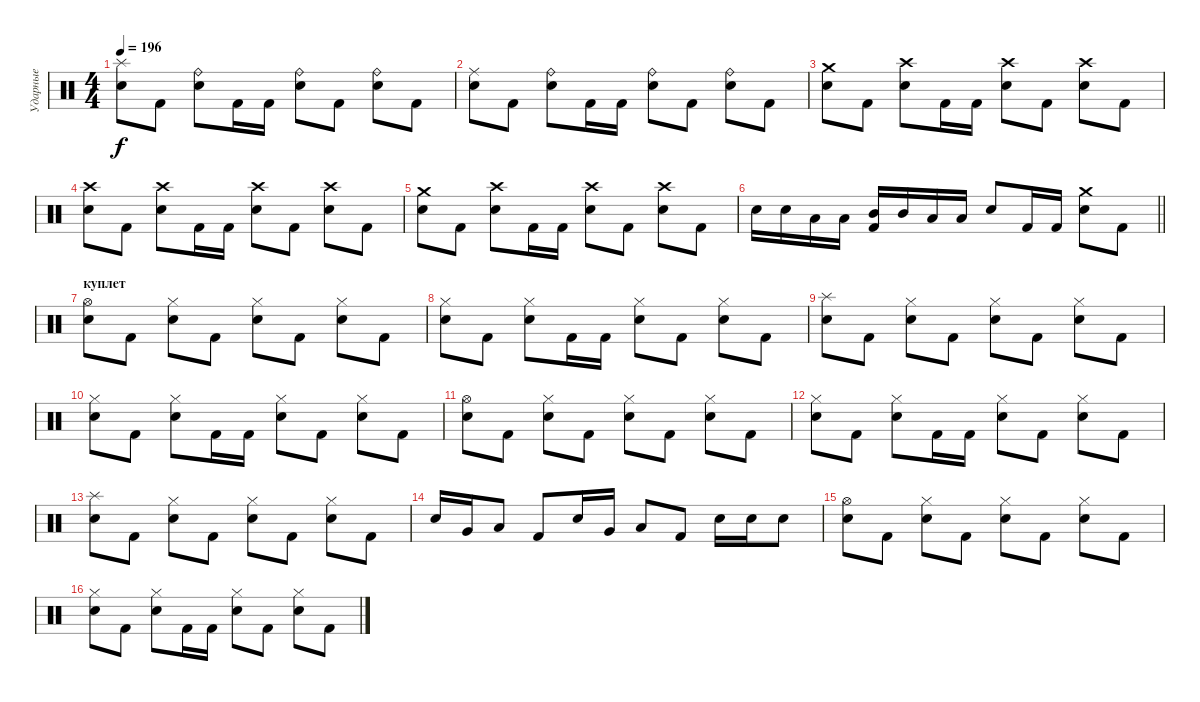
\track ("Ударные" "Ударные") {instrument percussion}
\staff {score}
\articulation defaults
\ts (4 4)
\tempo 196
\clef neutral
\ks c
("Splash (hit)" "Snare (hit) 2").8{dy f} "Kick (hit) 2".8 ("Ride (bell)" "Snare (hit) 2").8 "Kick (hit) 2".16 "Kick (hit) 2".16 ("Ride (bell)" "Snare (hit) 2").8 "Kick (hit) 2".8 ("Ride (bell)" "Snare (hit) 2").8 "Kick (hit) 2".8 |
("Ride (middle)" "Snare (hit) 2").8 "Kick (hit) 2".8 ("Ride (bell)" "Snare (hit) 2").8 "Kick (hit) 2".16 "Kick (hit) 2".16 ("Ride (bell)" "Snare (hit) 2").8 "Kick (hit) 2".8 ("Ride (bell)" "Snare (hit) 2").8 "Kick (hit) 2".8 |
("Crash medium (hit)" "Snare (hit) 2").8 "Kick (hit) 2".8 ("Crash high (hit)" "Snare (hit) 2").8 "Kick (hit) 2".16 "Kick (hit) 2".16 ("Crash high (hit)" "Snare (hit) 2").8 "Kick (hit) 2".8 ("Crash high (hit)" "Snare (hit) 2").8 "Kick (hit) 2".8 |
("Crash high (hit)" "Snare (hit) 2").8 "Kick (hit) 2".8 ("Crash high (hit)" "Snare (hit) 2").8 "Kick (hit) 2".16 "Kick (hit) 2".16 ("Crash high (hit)" "Snare (hit) 2").8 "Kick (hit) 2".8 ("Crash high (hit)" "Snare (hit) 2").8 "Kick (hit) 2".8 |
("Crash medium (hit)" "Snare (hit) 2").8 "Kick (hit) 2".8 ("Crash high (hit)" "Snare (hit) 2").8 "Kick (hit) 2".16 "Kick (hit) 2".16 ("Crash high (hit)" "Snare (hit) 2").8 "Kick (hit) 2".8 ("Crash high (hit)" "Snare (hit) 2").8 "Kick (hit) 2".8 |
\barLineRight lightlight "Snare (hit) 2".16 "Snare (hit) 2".16 "Low Tom (hit)".16 "Low Tom (hit)".16
("Mid Tom (hit)" "Kick (hit) 2").16 "Mid Tom (hit)".16 "Low Tom (hit)".16 "Low Tom (hit)".16 "Snare (hit) 2".8 "Kick (hit) 2".16 "Kick (hit) 2".16 ("Crash medium (hit)" "Snare (hit) 2").8 "Kick (hit) 2".8 |
\section ("" "куплет")
("Hi-Hat (open)" "Snare (hit) 2").8 "Kick (hit) 2".8 ("Hi-Hat (closed)" "Snare (hit) 2").8 "Kick (hit) 2".8 ("Hi-Hat (closed)" "Snare (hit) 2").8 "Kick (hit) 2".8 ("Hi-Hat (closed)" "Snare (hit) 2").8 "Kick (hit) 2".8 |
("Hi-Hat (closed)" "Snare (hit) 2").8 "Kick (hit) 2".8 ("Hi-Hat (closed)" "Snare (hit) 2").8 "Kick (hit) 2".16 "Kick (hit) 2".16 ("Hi-Hat (closed)" "Snare (hit) 2").8 "Kick (hit) 2".8 ("Hi-Hat (closed)" "Snare (hit) 2").8 "Kick (hit) 2".8 |
("Splash (hit)" "Snare (hit) 2").8 "Kick (hit) 2".8 ("Hi-Hat (closed)" "Snare (hit) 2").8 "Kick (hit) 2".8 ("Hi-Hat (closed)" "Snare (hit) 2").8 "Kick (hit) 2".8 ("Hi-Hat (closed)" "Snare (hit) 2").8 "Kick (hit) 2".8 |
("Hi-Hat (closed)" "Snare (hit) 2").8 "Kick (hit) 2".8 ("Hi-Hat (closed)" "Snare (hit) 2").8 "Kick (hit) 2".16 "Kick (hit) 2".16 ("Hi-Hat (closed)" "Snare (hit) 2").8 "Kick (hit) 2".8 ("Hi-Hat (closed)" "Snare (hit) 2").8 "Kick (hit) 2".8 |
("Hi-Hat (open)" "Snare (hit) 2").8 "Kick (hit) 2".8 ("Hi-Hat (closed)" "Snare (hit) 2").8 "Kick (hit) 2".8 ("Hi-Hat (closed)" "Snare (hit) 2").8 "Kick (hit) 2".8 ("Hi-Hat (closed)" "Snare (hit) 2").8 "Kick (hit) 2".8 |
("Hi-Hat (closed)" "Snare (hit) 2").8 "Kick (hit) 2".8 ("Hi-Hat (closed)" "Snare (hit) 2").8 "Kick (hit) 2".16 "Kick (hit) 2".16 ("Hi-Hat (closed)" "Snare (hit) 2").8 "Kick (hit) 2".8 ("Hi-Hat (closed)" "Snare (hit) 2").8 "Kick (hit) 2".8 |
("Splash (hit)" "Snare (hit) 2").8 "Kick (hit) 2".8 ("Hi-Hat (closed)" "Snare (hit) 2").8 "Kick (hit) 2".8 ("Hi-Hat (closed)" "Snare (hit) 2").8 "Kick (hit) 2".8 ("Hi-Hat (closed)" "Snare (hit) 2").8 "Kick (hit) 2".8 |
"Snare (hit) 2".16 "Very Low Tom (hit)".16 "Low Tom (hit)".8 "Kick (hit) 2".8 "Snare (hit) 2".16 "Very Low Tom (hit)".16 "Low Tom (hit)".8 "Kick (hit) 2".8 "Snare (hit) 2".16 "Snare (hit) 2".16 "Snare (hit) 2".8 |
("Hi-Hat (open)" "Snare (hit) 2").8 "Kick (hit) 2".8 ("Hi-Hat (closed)" "Snare (hit) 2").8 "Kick (hit) 2".8 ("Hi-Hat (closed)" "Snare (hit) 2").8 "Kick (hit) 2".8 ("Hi-Hat (closed)" "Snare (hit) 2").8 "Kick (hit) 2".8 |
("Hi-Hat (closed)" "Snare (hit) 2").8 "Kick (hit) 2".8 ("Hi-Hat (closed)" "Snare (hit) 2").8 "Kick (hit) 2".16 "Kick (hit) 2".16 ("Hi-Hat (closed)" "Snare (hit) 2").8 "Kick (hit) 2".8 ("Hi-Hat (closed)" "Snare (hit) 2").8 "Kick (hit) 2".8
